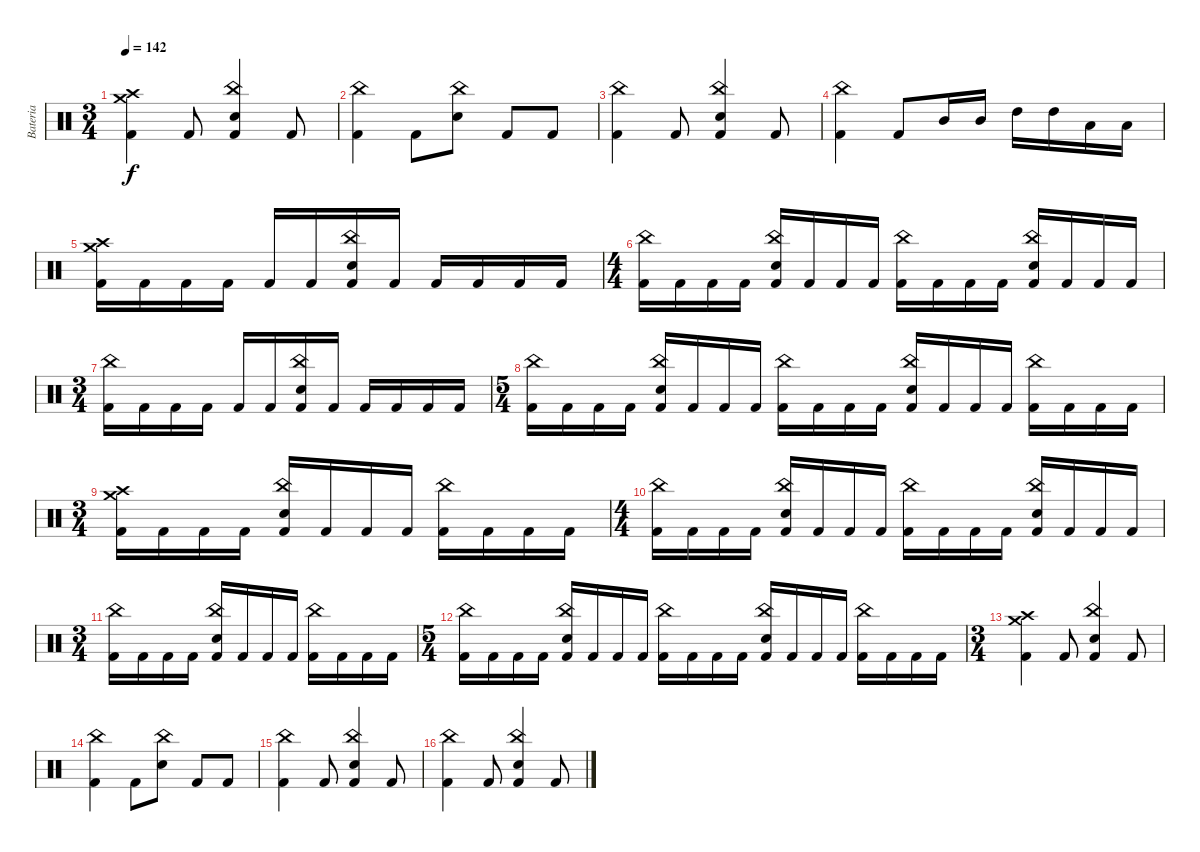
\track ("Bateria" "Bateria") {instrument percussion}
\staff {score}
\articulation defaults
\ts (3 4)
\tempo 142
\clef neutral
\ks c
("Crash high (hit)" "Crash medium (hit)" "Kick (hit) 2").4{dy f} "Kick (hit) 2".8 ("China (hit)" "Snare (hit) 2" "Kick (hit) 2").4 "Kick (hit) 2".8 |
("China (hit)" "Kick (hit) 2").4 "Kick (hit) 2".8 ("China (hit)" "Snare (hit) 2").8 "Kick (hit) 2".8 "Kick (hit) 2".8 |
("China (hit)" "Kick (hit) 2").4 "Kick (hit) 2".8 ("China (hit)" "Snare (hit) 2" "Kick (hit) 2").4 "Kick (hit) 2".8 |
("China (hit)" "Kick (hit) 2").4 "Kick (hit) 2".8 "Mid Tom (hit)".16 "Mid Tom (hit)".16 "High Tom (hit)".16 "High Tom (hit)".16 "Low Tom (hit)".16 "Low Tom (hit)".16 |
("Crash high (hit)" "Crash medium (hit)" "Kick (hit) 2").16 "Kick (hit) 2".16 "Kick (hit) 2".16 "Kick (hit) 2".16 "Kick (hit) 2".16 "Kick (hit) 2".16 ("China (hit)" "Snare (hit) 2" "Kick (hit) 2").16 "Kick (hit) 2".16 "Kick (hit) 2".16 "Kick (hit) 2".16 "Kick (hit) 2".16 "Kick (hit) 2".16 |
\ts (4 4)
("China (hit)" "Kick (hit) 2").16 "Kick (hit) 2".16 "Kick (hit) 2".16 "Kick (hit) 2".16 ("China (hit)" "Snare (hit) 2" "Kick (hit) 2").16 "Kick (hit) 2".16 "Kick (hit) 2".16 "Kick (hit) 2".16 ("China (hit)" "Kick (hit) 2").16 "Kick (hit) 2".16 "Kick (hit) 2".16 "Kick (hit) 2".16 ("China (hit)" "Snare (hit) 2" "Kick (hit) 2").16 "Kick (hit) 2".16 "Kick (hit) 2".16 "Kick (hit) 2".16 |
\ts (3 4)
("China (hit)" "Kick (hit) 2").16 "Kick (hit) 2".16 "Kick (hit) 2".16 "Kick (hit) 2".16 "Kick (hit) 2".16 "Kick (hit) 2".16 ("China (hit)" "Snare (hit) 2" "Kick (hit) 2").16 "Kick (hit) 2".16 "Kick (hit) 2".16 "Kick (hit) 2".16 "Kick (hit) 2".16 "Kick (hit) 2".16 |
\ts (5 4)
("China (hit)" "Kick (hit) 2").16 "Kick (hit) 2".16 "Kick (hit) 2".16 "Kick (hit) 2".16 ("China (hit)" "Snare (hit) 2" "Kick (hit) 2").16 "Kick (hit) 2".16 "Kick (hit) 2".16 "Kick (hit) 2".16 ("China (hit)" "Kick (hit) 2").16 "Kick (hit) 2".16 "Kick (hit) 2".16 "Kick (hit) 2".16 ("China (hit)" "Snare (hit) 2" "Kick (hit) 2").16 "Kick (hit) 2".16 "Kick (hit) 2".16 "Kick (hit) 2".16 ("China (hit)" "Kick (hit) 2").16 "Kick (hit) 2".16 "Kick (hit) 2".16 "Kick (hit) 2".16 |
\ts (3 4)
("Crash high (hit)" "Crash medium (hit)" "Kick (hit) 2").16 "Kick (hit) 2".16 "Kick (hit) 2".16 "Kick (hit) 2".16 ("China (hit)" "Snare (hit) 2" "Kick (hit) 2").16 "Kick (hit) 2".16 "Kick (hit) 2".16 "Kick (hit) 2".16 ("China (hit)" "Kick (hit) 2").16 "Kick (hit) 2".16 "Kick (hit) 2".16 "Kick (hit) 2".16 |
\ts (4 4)
("China (hit)" "Kick (hit) 2").16 "Kick (hit) 2".16 "Kick (hit) 2".16 "Kick (hit) 2".16 ("China (hit)" "Snare (hit) 2" "Kick (hit) 2").16 "Kick (hit) 2".16 "Kick (hit) 2".16 "Kick (hit) 2".16 ("China (hit)" "Kick (hit) 2").16 "Kick (hit) 2".16 "Kick (hit) 2".16 "Kick (hit) 2".16 ("China (hit)" "Snare (hit) 2" "Kick (hit) 2").16 "Kick (hit) 2".16 "Kick (hit) 2".16 "Kick (hit) 2".16 |
\ts (3 4)
("China (hit)" "Kick (hit) 2").16 "Kick (hit) 2".16 "Kick (hit) 2".16 "Kick (hit) 2".16 ("China (hit)" "Snare (hit) 2" "Kick (hit) 2").16 "Kick (hit) 2".16 "Kick (hit) 2".16 "Kick (hit) 2".16 ("China (hit)" "Kick (hit) 2").16 "Kick (hit) 2".16 "Kick (hit) 2".16 "Kick (hit) 2".16 |
\ts (5 4)
("China (hit)" "Kick (hit) 2").16 "Kick (hit) 2".16 "Kick (hit) 2".16 "Kick (hit) 2".16 ("China (hit)" "Snare (hit) 2" "Kick (hit) 2").16 "Kick (hit) 2".16 "Kick (hit) 2".16 "Kick (hit) 2".16 ("China (hit)" "Kick (hit) 2").16 "Kick (hit) 2".16 "Kick (hit) 2".16 "Kick (hit) 2".16 ("China (hit)" "Snare (hit) 2" "Kick (hit) 2").16 "Kick (hit) 2".16 "Kick (hit) 2".16 "Kick (hit) 2".16 ("China (hit)" "Kick (hit) 2").16 "Kick (hit) 2".16 "Kick (hit) 2".16 "Kick (hit) 2".16 |
\ts (3 4)
("Crash high (hit)" "Crash medium (hit)" "Kick (hit) 2").4 "Kick (hit) 2".8 ("China (hit)" "Snare (hit) 2" "Kick (hit) 2").4 "Kick (hit) 2".8 |
("China (hit)" "Kick (hit) 2").4 "Kick (hit) 2".8 ("China (hit)" "Snare (hit) 2").8 "Kick (hit) 2".8 "Kick (hit) 2".8 |
("China (hit)" "Kick (hit) 2").4 "Kick (hit) 2".8 ("China (hit)" "Snare (hit) 2" "Kick (hit) 2").4 "Kick (hit) 2".8 |
("China (hit)" "Kick (hit) 2").4 "Kick (hit) 2".8 ("China (hit)" "Snare (hit) 2" "Kick (hit) 2").4 "Kick (hit) 2".8
